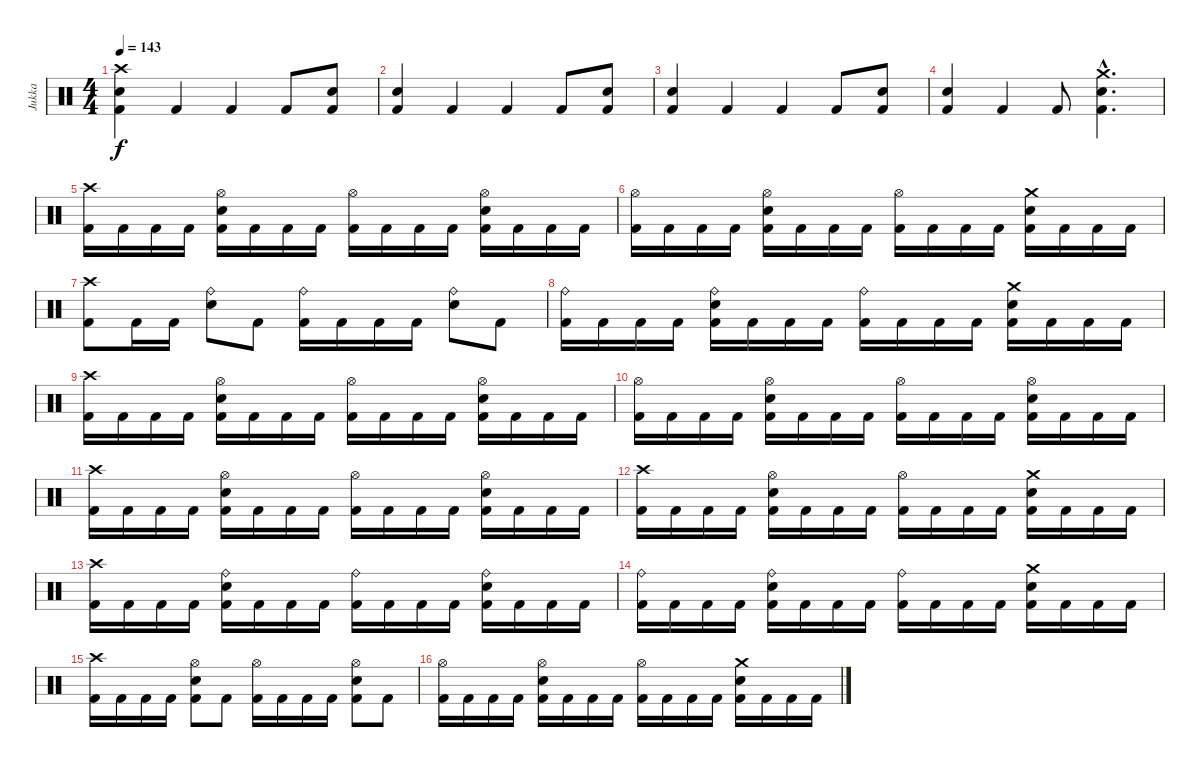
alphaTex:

\track ("Jukka" "Jukka") {instrument percussion}
\staff {score}
\articulation defaults
\ts (4 4)
\tempo 143
\clef neutral
\ks c
("Crash high (hit)" "Electric Snare (hit)" "Kick (hit) 2").4{dy f} "Kick (hit) 2".4 "Kick (hit) 2".4 "Kick (hit) 2".8 ("Electric Snare (hit)" "Kick (hit) 2").8 |
("Electric Snare (hit)" "Kick (hit) 2").4 "Kick (hit) 2".4 "Kick (hit) 2".4 "Kick (hit) 2".8 ("Electric Snare (hit)" "Kick (hit) 2").8 |
("Electric Snare (hit)" "Kick (hit) 2").4 "Kick (hit) 2".4 "Kick (hit) 2".4 "Kick (hit) 2".8 ("Electric Snare (hit)" "Kick (hit) 2").8 |
("Electric Snare (hit)" "Kick (hit) 2").4 "Kick (hit) 2".4 "Kick (hit) 2".8 ("Crash medium (hit)"{hac} "Electric Snare (hit)"{hac} "Kick (hit) 2"{hac}).4{d} |
("Crash high (hit)" "Kick (hit) 2").16 "Kick (hit) 2".16 "Kick (hit) 2".16 "Kick (hit) 2".16 ("Hi-Hat (open)" "Electric Snare (hit)" "Kick (hit) 2").16 "Kick (hit) 2".16 "Kick (hit) 2".16 "Kick (hit) 2".16 ("Hi-Hat (open)" "Kick (hit) 2").16 "Kick (hit) 2".16 "Kick (hit) 2".16 "Kick (hit) 2".16 ("Hi-Hat (open)" "Electric Snare (hit)" "Kick (hit) 2").16 "Kick (hit) 2".16 "Kick (hit) 2".16 "Kick (hit) 2".16 |
("Hi-Hat (open)" "Kick (hit) 2").16 "Kick (hit) 2".16 "Kick (hit) 2".16 "Kick (hit) 2".16 ("Hi-Hat (open)" "Electric Snare (hit)" "Kick (hit) 2").16 "Kick (hit) 2".16 "Kick (hit) 2".16 "Kick (hit) 2".16 ("Hi-Hat (open)" "Kick (hit) 2").16 "Kick (hit) 2".16 "Kick (hit) 2".16 "Kick (hit) 2".16 ("Crash medium (hit)" "Electric Snare (hit)" "Kick (hit) 2").16 "Kick (hit) 2".16 "Kick (hit) 2".16 "Kick (hit) 2".16 |
("Crash high (hit)" "Kick (hit) 2").8 "Kick (hit) 2".16 "Kick (hit) 2".16 ("Ride (bell)" "Electric Snare (hit)").8 "Kick (hit) 2".8 ("Ride (bell)" "Kick (hit) 2").16 "Kick (hit) 2".16 "Kick (hit) 2".16 "Kick (hit) 2".16 ("Ride (bell)" "Electric Snare (hit)").8 "Kick (hit) 2".8 |
("Ride (bell)" "Kick (hit) 2").16 "Kick (hit) 2".16 "Kick (hit) 2".16 "Kick (hit) 2".16 ("Ride (bell)" "Electric Snare (hit)" "Kick (hit) 2").16 "Kick (hit) 2".16 "Kick (hit) 2".16 "Kick (hit) 2".16 ("Ride (bell)" "Kick (hit) 2").16 "Kick (hit) 2".16 "Kick (hit) 2".16 "Kick (hit) 2".16 ("Crash medium (hit)" "Electric Snare (hit)" "Kick (hit) 2").16 "Kick (hit) 2".16 "Kick (hit) 2".16 "Kick (hit) 2".16 |
("Crash high (hit)" "Kick (hit) 2").16 "Kick (hit) 2".16 "Kick (hit) 2".16 "Kick (hit) 2".16 ("Hi-Hat (open)" "Electric Snare (hit)" "Kick (hit) 2").16 "Kick (hit) 2".16 "Kick (hit) 2".16 "Kick (hit) 2".16 ("Hi-Hat (open)" "Kick (hit) 2").16 "Kick (hit) 2".16 "Kick (hit) 2".16 "Kick (hit) 2".16 ("Hi-Hat (open)" "Electric Snare (hit)" "Kick (hit) 2").16 "Kick (hit) 2".16 "Kick (hit) 2".16 "Kick (hit) 2".16 |
("Hi-Hat (open)" "Kick (hit) 2").16 "Kick (hit) 2".16 "Kick (hit) 2".16 "Kick (hit) 2".16 ("Hi-Hat (open)" "Electric Snare (hit)" "Kick (hit) 2").16 "Kick (hit) 2".16 "Kick (hit) 2".16 "Kick (hit) 2".16 ("Hi-Hat (open)" "Kick (hit) 2").16 "Kick (hit) 2".16 "Kick (hit) 2".16 "Kick (hit) 2".16 ("Hi-Hat (open)" "Electric Snare (hit)" "Kick (hit) 2").16 "Kick (hit) 2".16 "Kick (hit) 2".16 "Kick (hit) 2".16 |
("Crash high (hit)" "Kick (hit) 2").16 "Kick (hit) 2".16 "Kick (hit) 2".16 "Kick (hit) 2".16 ("Hi-Hat (open)" "Electric Snare (hit)" "Kick (hit) 2").16 "Kick (hit) 2".16 "Kick (hit) 2".16 "Kick (hit) 2".16 ("Hi-Hat (open)" "Kick (hit) 2").16 "Kick (hit) 2".16 "Kick (hit) 2".16 "Kick (hit) 2".16 ("Hi-Hat (open)" "Electric Snare (hit)" "Kick (hit) 2").16 "Kick (hit) 2".16 "Kick (hit) 2".16 "Kick (hit) 2".16 |
("Crash high (hit)" "Kick (hit) 2").16 "Kick (hit) 2".16 "Kick (hit) 2".16 "Kick (hit) 2".16 ("Hi-Hat (open)" "Electric Snare (hit)" "Kick (hit) 2").16 "Kick (hit) 2".16 "Kick (hit) 2".16 "Kick (hit) 2".16 ("Hi-Hat (open)" "Kick (hit) 2").16 "Kick (hit) 2".16 "Kick (hit) 2".16 "Kick (hit) 2".16 ("Crash medium (hit)" "Electric Snare (hit)" "Kick (hit) 2").16 "Kick (hit) 2".16 "Kick (hit) 2".16 "Kick (hit) 2".16 |
("Crash high (hit)" "Kick (hit) 2").16 "Kick (hit) 2".16 "Kick (hit) 2".16 "Kick (hit) 2".16 ("Ride (bell)" "Electric Snare (hit)" "Kick (hit) 2").16 "Kick (hit) 2".16 "Kick (hit) 2".16 "Kick (hit) 2".16 ("Ride (bell)" "Kick (hit) 2").16 "Kick (hit) 2".16 "Kick (hit) 2".16 "Kick (hit) 2".16 ("Ride (bell)" "Electric Snare (hit)" "Kick (hit) 2").16 "Kick (hit) 2".16 "Kick (hit) 2".16 "Kick (hit) 2".16 |
("Ride (bell)" "Kick (hit) 2").16 "Kick (hit) 2".16 "Kick (hit) 2".16 "Kick (hit) 2".16 ("Ride (bell)" "Electric Snare (hit)" "Kick (hit) 2").16 "Kick (hit) 2".16 "Kick (hit) 2".16 "Kick (hit) 2".16 ("Ride (bell)" "Kick (hit) 2").16 "Kick (hit) 2".16 "Kick (hit) 2".16 "Kick (hit) 2".16 ("Crash medium (hit)" "Electric Snare (hit)" "Kick (hit) 2").16 "Kick (hit) 2".16 "Kick (hit) 2".16 "Kick (hit) 2".16 |
("Crash high (hit)" "Kick (hit) 2").16 "Kick (hit) 2".16 "Kick (hit) 2".16 "Kick (hit) 2".16 ("Hi-Hat (open)" "Electric Snare (hit)" "Kick (hit) 2").8 "Kick (hit) 2".8 ("Hi-Hat (open)" "Kick (hit) 2").16 "Kick (hit) 2".16 "Kick (hit) 2".16 "Kick (hit) 2".16 ("Hi-Hat (open)" "Electric Snare (hit)" "Kick (hit) 2").8 "Kick (hit) 2".8 |
("Hi-Hat (open)" "Kick (hit) 2").16 "Kick (hit) 2".16 "Kick (hit) 2".16 "Kick (hit) 2".16 ("Hi-Hat (open)" "Electric Snare (hit)" "Kick (hit) 2").16 "Kick (hit) 2".16 "Kick (hit) 2".16 "Kick (hit) 2".16 ("Hi-Hat (open)" "Kick (hit) 2").16 "Kick (hit) 2".16 "Kick (hit) 2".16 "Kick (hit) 2".16 ("Crash medium (hit)" "Electric Snare (hit)" "Kick (hit) 2").16 "Kick (hit) 2".16 "Kick (hit) 2".16 "Kick (hit) 2".16
